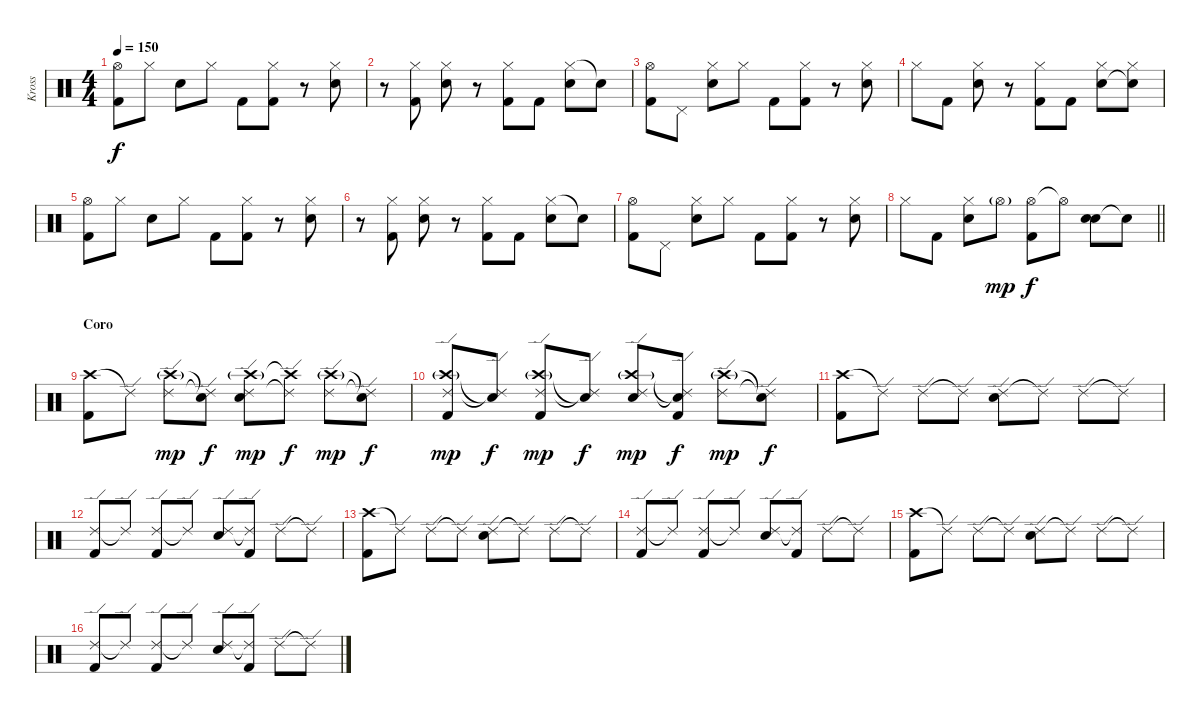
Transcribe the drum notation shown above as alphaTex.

\track ("Kross" "Kross") {instrument percussion}
\staff {score}
\articulation defaults
\ts (4 4)
\tempo 150
\clef neutral
\ks c
("Hi-Hat (open)" "Kick (hit) 2").8{dy f} "Hi-Hat (closed)".8 "Electric Snare (hit)".8 "Hi-Hat (closed)".8 "Kick (hit) 2".8 ("Hi-Hat (closed)" "Kick (hit) 2").8 r.8 ("Hi-Hat (closed)" "Electric Snare (hit)").8 |
r.8 ("Hi-Hat (closed)" "Kick (hit) 2").8 ("Hi-Hat (closed)" "Electric Snare (hit)").8 r.8 ("Hi-Hat (closed)" "Kick (hit) 2").8 "Kick (hit) 2".8 ("Hi-Hat (closed)" "Electric Snare (hit)").8 "Snare (hit)"{t}.8 |
("Hi-Hat (open)" "Kick (hit) 2").8 "Pedal Hi-Hat (hit)".8 ("Hi-Hat (closed)" "Electric Snare (hit)").8 "Hi-Hat (closed)".8 "Kick (hit) 2".8 ("Hi-Hat (closed)" "Kick (hit) 2").8 r.8 ("Hi-Hat (closed)" "Electric Snare (hit)").8 |
"Hi-Hat (closed)".8 "Kick (hit) 2".8 ("Hi-Hat (closed)" "Electric Snare (hit)").8 r.8 ("Hi-Hat (closed)" "Kick (hit) 2").8 "Kick (hit) 2".8 ("Hi-Hat (closed)" "Electric Snare (hit)").8 ("Hi-Hat (closed)" "Snare (hit)"{t}).8 |
("Hi-Hat (open)" "Kick (hit) 2").8 "Hi-Hat (closed)".8 "Electric Snare (hit)".8 "Hi-Hat (closed)".8 "Kick (hit) 2".8 ("Hi-Hat (closed)" "Kick (hit) 2").8 r.8 ("Hi-Hat (closed)" "Electric Snare (hit)").8 |
r.8 ("Hi-Hat (closed)" "Kick (hit) 2").8 ("Hi-Hat (closed)" "Electric Snare (hit)").8 r.8 ("Hi-Hat (closed)" "Kick (hit) 2").8 "Kick (hit) 2".8 ("Hi-Hat (closed)" "Electric Snare (hit)").8 "Snare (hit)"{t}.8 |
("Hi-Hat (open)" "Kick (hit) 2").8 "Pedal Hi-Hat (hit)".8 ("Hi-Hat (closed)" "Electric Snare (hit)").8 "Hi-Hat (closed)".8 "Kick (hit) 2".8 ("Hi-Hat (closed)" "Kick (hit) 2").8 r.8 ("Hi-Hat (closed)" "Electric Snare (hit)").8 |
\barLineRight lightlight "Hi-Hat (closed)".8 "Kick (hit) 2".8
("Hi-Hat (closed)" "Electric Snare (hit)").8 "Hi-Hat (open)"{g}.8{dy mp} ("Hi-Hat (open)" "Kick (hit) 2").8{dy f} "Hi-Hat (open)"{t}.8 ("Electric Snare (hit)" "Electric Snare (hit)").8{bd 480} "Snare (hit)"{t}.8 |
\section ("" "Coro")
("Crash high (hit)" "Kick (hit) 2").8 "Ride (edge) 2"{t}.8 ("Crash high (hit)"{g} "Ride (edge) 2").8{dy mp} ("Snare (hit)"{t} "Ride (edge) 2"{t}).8{dy f} ("Crash high (hit)"{g} "Ride (edge) 2" "Electric Snare (hit)").8{dy mp} ("Crash high (hit)"{t} "Ride (edge) 2"{t}).8{dy f} ("Crash high (hit)"{g} "Ride (edge) 2").8{dy mp} ("Snare (hit)"{t} "Ride (edge) 2"{t}).8{dy f} |
("Crash high (hit)"{g} "Ride (edge) 2" "Kick (hit) 2").8{dy mp} ("Snare (hit)"{t} "Ride (edge) 2"{t}).8{dy f} ("Crash high (hit)"{g} "Ride (edge) 2" "Kick (hit) 2").8{dy mp} ("Snare (hit)"{t} "Ride (edge) 2"{t}).8{dy f} ("Crash high (hit)"{g} "Ride (edge) 2" "Electric Snare (hit)").8{dy mp} ("Snare (hit)"{t} "Ride (edge) 2"{t} "Kick (hit) 2").8{dy f} ("Crash high (hit)"{g} "Ride (edge) 2").8{dy mp} ("Snare (hit)"{t} "Ride (edge) 2"{t}).8{dy f} |
("Crash high (hit)" "Kick (hit) 2").8 "Ride (edge) 2"{t}.8 "Ride (edge) 2".8 "Ride (edge) 2"{t}.8 ("Ride (edge) 2" "Electric Snare (hit)").8 "Ride (edge) 2"{t}.8 "Ride (edge) 2".8 "Ride (edge) 2"{t}.8 |
("Ride (edge) 2" "Kick (hit) 2").8 "Ride (edge) 2"{t}.8 ("Ride (edge) 2" "Kick (hit) 2").8 "Ride (edge) 2"{t}.8 ("Ride (edge) 2" "Electric Snare (hit)").8 ("Ride (edge) 2"{t} "Kick (hit) 2").8 "Ride (edge) 2".8 "Ride (edge) 2"{t}.8 |
("Crash high (hit)" "Kick (hit) 2").8 "Ride (edge) 2"{t}.8 "Ride (edge) 2".8 "Ride (edge) 2"{t}.8 ("Ride (edge) 2" "Electric Snare (hit)").8 "Ride (edge) 2"{t}.8 "Ride (edge) 2".8 "Ride (edge) 2"{t}.8 |
("Ride (edge) 2" "Kick (hit) 2").8 "Ride (edge) 2"{t}.8 ("Ride (edge) 2" "Kick (hit) 2").8 "Ride (edge) 2"{t}.8 ("Ride (edge) 2" "Electric Snare (hit)").8 ("Ride (edge) 2"{t} "Kick (hit) 2").8 "Ride (edge) 2".8 "Ride (edge) 2"{t}.8 |
("Crash high (hit)" "Kick (hit) 2").8 "Ride (edge) 2"{t}.8 "Ride (edge) 2".8 "Ride (edge) 2"{t}.8 ("Ride (edge) 2" "Electric Snare (hit)").8 "Ride (edge) 2"{t}.8 "Ride (edge) 2".8 "Ride (edge) 2"{t}.8 |
("Ride (edge) 2" "Kick (hit) 2").8 "Ride (edge) 2"{t}.8 ("Ride (edge) 2" "Kick (hit) 2").8 "Ride (edge) 2"{t}.8 ("Ride (edge) 2" "Electric Snare (hit)").8 ("Ride (edge) 2"{t} "Kick (hit) 2").8 "Ride (edge) 2".8 "Ride (edge) 2"{t}.8
